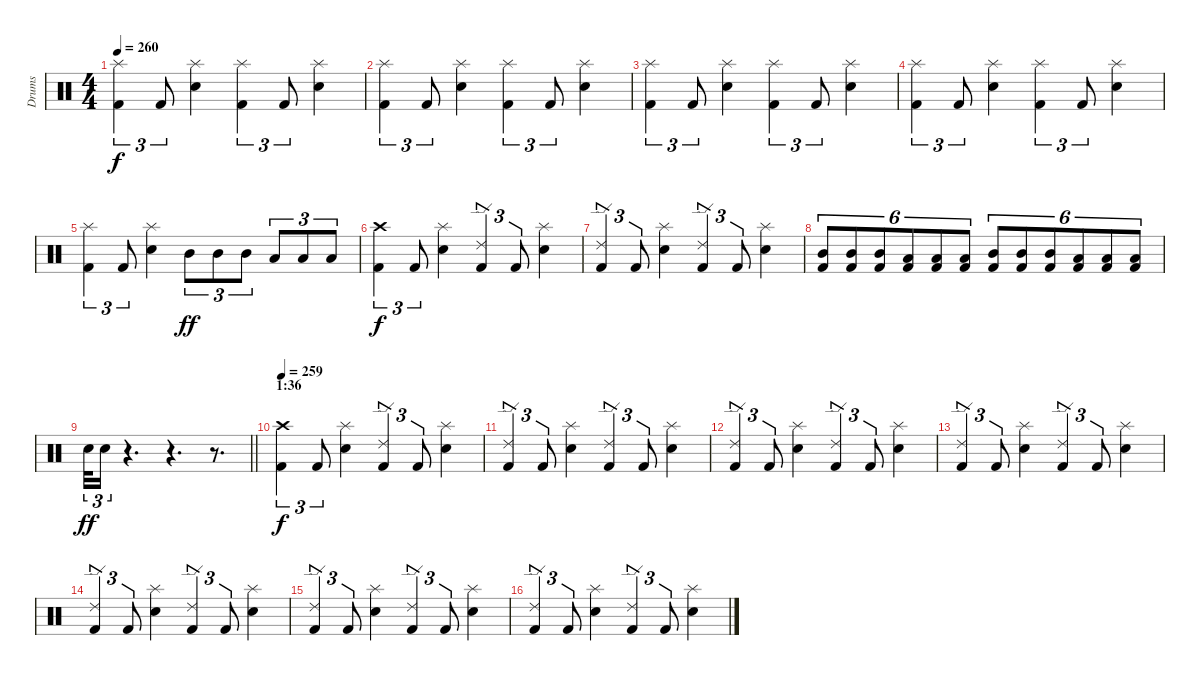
\track ("Drums" "Drums") {instrument percussion}
\staff {score}
\articulation defaults
\ts (4 4)
\tempo 260
\clef neutral
\ks c
("Splash (hit)" "Kick (hit) 2").4{tu (3 2) dy f} "Kick (hit) 2".8{tu (3 2)} ("Splash (hit)" "Snare (hit) 2").4 ("Splash (hit)" "Kick (hit) 2").4{tu (3 2)} "Kick (hit) 2".8{tu (3 2)} ("Splash (hit)" "Snare (hit) 2").4 |
("Splash (hit)" "Kick (hit) 2").4{tu (3 2)} "Kick (hit) 2".8{tu (3 2)} ("Splash (hit)" "Snare (hit) 2").4 ("Splash (hit)" "Kick (hit) 2").4{tu (3 2)} "Kick (hit) 2".8{tu (3 2)} ("Splash (hit)" "Snare (hit) 2").4 |
("Splash (hit)" "Kick (hit) 2").4{tu (3 2)} "Kick (hit) 2".8{tu (3 2)} ("Splash (hit)" "Snare (hit) 2").4 ("Splash (hit)" "Kick (hit) 2").4{tu (3 2)} "Kick (hit) 2".8{tu (3 2)} ("Splash (hit)" "Snare (hit) 2").4 |
("Splash (hit)" "Kick (hit) 2").4{tu (3 2)} "Kick (hit) 2".8{tu (3 2)} ("Splash (hit)" "Snare (hit) 2").4 ("Splash (hit)" "Kick (hit) 2").4{tu (3 2)} "Kick (hit) 2".8{tu (3 2)} ("Splash (hit)" "Snare (hit) 2").4 |
("Splash (hit)" "Kick (hit) 2").4{tu (3 2)} "Kick (hit) 2".8{tu (3 2)} ("Splash (hit)" "Snare (hit) 2").4 "Mid Tom (hit)".8{tu (3 2) dy ff} "Mid Tom (hit)".8{tu (3 2)} "Mid Tom (hit)".8{tu (3 2)} "Low Tom (hit)".8{tu (3 2)} "Low Tom (hit)".8{tu (3 2)} "Low Tom (hit)".8{tu (3 2)} |
("Crash high (hit)" "Kick (hit) 2").4{tu (3 2) dy f} "Kick (hit) 2".8{tu (3 2)} ("Splash (hit)" "Snare (hit) 2").4 ("Ride (edge) 2" "Kick (hit) 2").4{tu (3 2)} "Kick (hit) 2".8{tu (3 2)} ("Splash (hit)" "Snare (hit) 2").4 |
("Ride (edge) 2" "Kick (hit) 2").4{tu (3 2)} "Kick (hit) 2".8{tu (3 2)} ("Splash (hit)" "Snare (hit) 2").4 ("Ride (edge) 2" "Kick (hit) 2").4{tu (3 2)} "Kick (hit) 2".8{tu (3 2)} ("Splash (hit)" "Snare (hit) 2").4 |
("Mid Tom (hit)" "Kick (hit) 2").8{tu (6 4)} ("Mid Tom (hit)" "Kick (hit) 2").8{tu (6 4)} ("Mid Tom (hit)" "Kick (hit) 2").8{tu (6 4)} ("Low Tom (hit)" "Kick (hit) 2").8{tu (6 4)} ("Low Tom (hit)" "Kick (hit) 2").8{tu (6 4)} ("Low Tom (hit)" "Kick (hit) 2").8{tu (6 4)} ("Mid Tom (hit)" "Kick (hit) 2").8{tu (6 4)} ("Mid Tom (hit)" "Kick (hit) 2").8{tu (6 4)} ("Mid Tom (hit)" "Kick (hit) 2").8{tu (6 4)} ("Low Tom (hit)" "Kick (hit) 2").8{tu (6 4)} ("Low Tom (hit)" "Kick (hit) 2").8{tu (6 4)} ("Low Tom (hit)" "Kick (hit) 2").8{tu (6 4)} |
\barLineRight lightlight "Electric Snare (hit)".32{tu (3 2) dy ff} "Electric Snare (hit)".16{tu (3 2)}
r.4{d} r.4{d} r.8{d} |
\section ("" "1:36")
\tempo 259
("Crash high (hit)" "Kick (hit) 2").4{tu (3 2) dy f} "Kick (hit) 2".8{tu (3 2)} ("Splash (hit)" "Snare (hit) 2").4 ("Ride (edge) 2" "Kick (hit) 2").4{tu (3 2)} "Kick (hit) 2".8{tu (3 2)} ("Splash (hit)" "Snare (hit) 2").4 |
("Ride (edge) 2" "Kick (hit) 2").4{tu (3 2)} "Kick (hit) 2".8{tu (3 2)} ("Splash (hit)" "Snare (hit) 2").4 ("Ride (edge) 2" "Kick (hit) 2").4{tu (3 2)} "Kick (hit) 2".8{tu (3 2)} ("Splash (hit)" "Snare (hit) 2").4 |
("Ride (edge) 2" "Kick (hit) 2").4{tu (3 2)} "Kick (hit) 2".8{tu (3 2)} ("Splash (hit)" "Snare (hit) 2").4 ("Ride (edge) 2" "Kick (hit) 2").4{tu (3 2)} "Kick (hit) 2".8{tu (3 2)} ("Splash (hit)" "Snare (hit) 2").4 |
("Ride (edge) 2" "Kick (hit) 2").4{tu (3 2)} "Kick (hit) 2".8{tu (3 2)} ("Splash (hit)" "Snare (hit) 2").4 ("Ride (edge) 2" "Kick (hit) 2").4{tu (3 2)} "Kick (hit) 2".8{tu (3 2)} ("Splash (hit)" "Snare (hit) 2").4 |
("Ride (edge) 2" "Kick (hit) 2").4{tu (3 2)} "Kick (hit) 2".8{tu (3 2)} ("Splash (hit)" "Snare (hit) 2").4 ("Ride (edge) 2" "Kick (hit) 2").4{tu (3 2)} "Kick (hit) 2".8{tu (3 2)} ("Splash (hit)" "Snare (hit) 2").4 |
("Ride (edge) 2" "Kick (hit) 2").4{tu (3 2)} "Kick (hit) 2".8{tu (3 2)} ("Splash (hit)" "Snare (hit) 2").4 ("Ride (edge) 2" "Kick (hit) 2").4{tu (3 2)} "Kick (hit) 2".8{tu (3 2)} ("Splash (hit)" "Snare (hit) 2").4 |
("Ride (edge) 2" "Kick (hit) 2").4{tu (3 2)} "Kick (hit) 2".8{tu (3 2)} ("Splash (hit)" "Snare (hit) 2").4 ("Ride (edge) 2" "Kick (hit) 2").4{tu (3 2)} "Kick (hit) 2".8{tu (3 2)} ("Splash (hit)" "Snare (hit) 2").4
